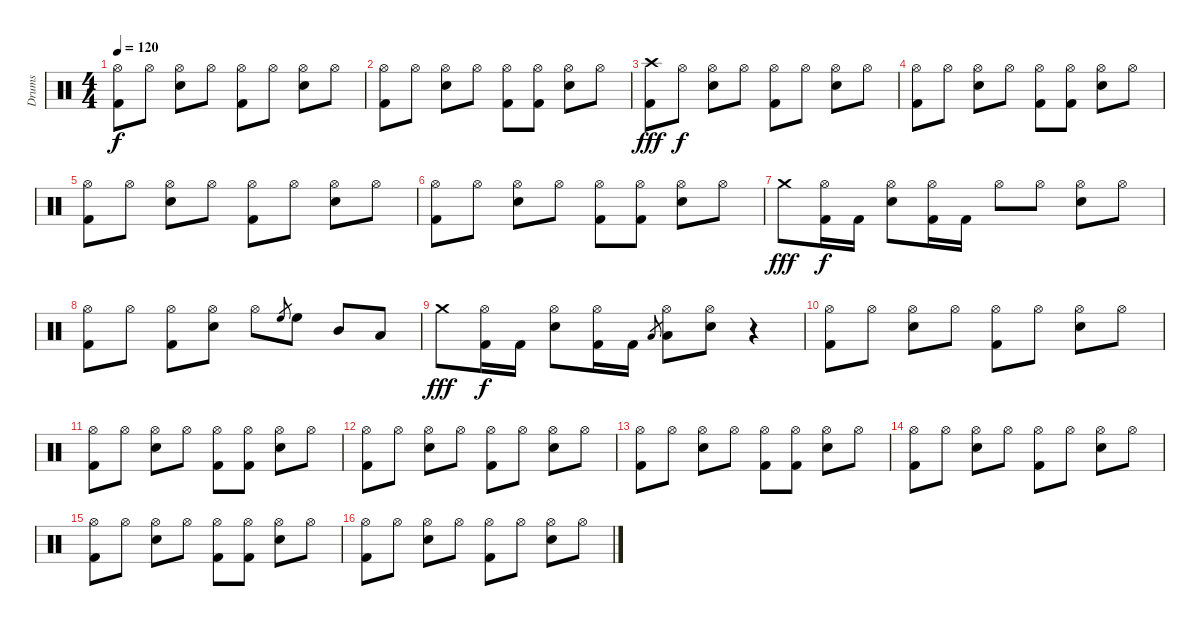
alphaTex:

\track ("Drums" "Drums") {instrument percussion}
\staff {score}
\articulation defaults
\ts (4 4)
\tempo 120
\clef neutral
\ks c
("Hi-Hat (open)" "Kick (hit) 2").8{dy f} "Hi-Hat (open)".8 ("Hi-Hat (open)" "Electric Snare (hit)").8 "Hi-Hat (open)".8 ("Hi-Hat (open)" "Kick (hit) 2").8 "Hi-Hat (open)".8 ("Hi-Hat (open)" "Electric Snare (hit)").8 "Hi-Hat (open)".8 |
("Hi-Hat (open)" "Kick (hit) 2").8 "Hi-Hat (open)".8 ("Hi-Hat (open)" "Electric Snare (hit)").8 "Hi-Hat (open)".8 ("Hi-Hat (open)" "Kick (hit) 2").8 ("Hi-Hat (open)" "Kick (hit) 2").8 ("Hi-Hat (open)" "Electric Snare (hit)").8 "Hi-Hat (open)".8 |
("Crash high (hit)" "Kick (hit) 2").8{dy fff} "Hi-Hat (open)".8{dy f} ("Hi-Hat (open)" "Electric Snare (hit)").8 "Hi-Hat (open)".8 ("Hi-Hat (open)" "Kick (hit) 2").8 "Hi-Hat (open)".8 ("Hi-Hat (open)" "Electric Snare (hit)").8 "Hi-Hat (open)".8 |
("Hi-Hat (open)" "Kick (hit) 2").8 "Hi-Hat (open)".8 ("Hi-Hat (open)" "Electric Snare (hit)").8 "Hi-Hat (open)".8 ("Hi-Hat (open)" "Kick (hit) 2").8 ("Hi-Hat (open)" "Kick (hit) 2").8 ("Hi-Hat (open)" "Electric Snare (hit)").8 "Hi-Hat (open)".8 |
("Hi-Hat (open)" "Kick (hit) 2").8 "Hi-Hat (open)".8 ("Hi-Hat (open)" "Electric Snare (hit)").8 "Hi-Hat (open)".8 ("Hi-Hat (open)" "Kick (hit) 2").8 "Hi-Hat (open)".8 ("Hi-Hat (open)" "Electric Snare (hit)").8 "Hi-Hat (open)".8 |
("Hi-Hat (open)" "Kick (hit) 2").8 "Hi-Hat (open)".8 ("Hi-Hat (open)" "Electric Snare (hit)").8 "Hi-Hat (open)".8 ("Hi-Hat (open)" "Kick (hit) 2").8 ("Hi-Hat (open)" "Kick (hit) 2").8 ("Hi-Hat (open)" "Electric Snare (hit)").8 "Hi-Hat (open)".8 |
"Crash medium (hit)".8{dy fff} ("Hi-Hat (open)" "Kick (hit) 2").16{dy f} "Kick (hit) 2".16 ("Hi-Hat (open)" "Electric Snare (hit)").8 ("Hi-Hat (open)" "Kick (hit) 2").16 "Kick (hit) 2".16 "Hi-Hat (open)".8 "Hi-Hat (open)".8 ("Hi-Hat (open)" "Electric Snare (hit)").8 "Hi-Hat (open)".8 |
("Hi-Hat (open)" "Kick (hit) 2").8 "Hi-Hat (open)".8 ("Hi-Hat (open)" "Kick (hit) 2").8 ("Hi-Hat (open)" "Electric Snare (hit)").8 "Hi-Hat (open)".8 "High Floor Tom (hit)".8{gr} "High Floor Tom (hit)".8 "Mid Tom (hit)".8 "Low Tom (hit)".8 |
"Crash medium (hit)".8{dy fff} ("Hi-Hat (open)" "Kick (hit) 2").16{dy f} "Kick (hit) 2".16 ("Hi-Hat (open)" "Electric Snare (hit)").8 ("Hi-Hat (open)" "Kick (hit) 2").16 "Kick (hit) 2".16 "Low Tom (hit)".8{gr} ("Hi-Hat (open)" "Low Tom (hit)").8 ("Hi-Hat (open)" "Electric Snare (hit)").8 r.4 |
("Hi-Hat (open)" "Kick (hit) 2").8 "Hi-Hat (open)".8 ("Hi-Hat (open)" "Electric Snare (hit)").8 "Hi-Hat (open)".8 ("Hi-Hat (open)" "Kick (hit) 2").8 "Hi-Hat (open)".8 ("Hi-Hat (open)" "Electric Snare (hit)").8 "Hi-Hat (open)".8 |
("Hi-Hat (open)" "Kick (hit) 2").8 "Hi-Hat (open)".8 ("Hi-Hat (open)" "Electric Snare (hit)").8 "Hi-Hat (open)".8 ("Hi-Hat (open)" "Kick (hit) 2").8 ("Hi-Hat (open)" "Kick (hit) 2").8 ("Hi-Hat (open)" "Electric Snare (hit)").8 "Hi-Hat (open)".8 |
("Hi-Hat (open)" "Kick (hit) 2").8 "Hi-Hat (open)".8 ("Hi-Hat (open)" "Electric Snare (hit)").8 "Hi-Hat (open)".8 ("Hi-Hat (open)" "Kick (hit) 2").8 "Hi-Hat (open)".8 ("Hi-Hat (open)" "Electric Snare (hit)").8 "Hi-Hat (open)".8 |
("Hi-Hat (open)" "Kick (hit) 2").8 "Hi-Hat (open)".8 ("Hi-Hat (open)" "Electric Snare (hit)").8 "Hi-Hat (open)".8 ("Hi-Hat (open)" "Kick (hit) 2").8 ("Hi-Hat (open)" "Kick (hit) 2").8 ("Hi-Hat (open)" "Electric Snare (hit)").8 "Hi-Hat (open)".8 |
("Hi-Hat (open)" "Kick (hit) 2").8 "Hi-Hat (open)".8 ("Hi-Hat (open)" "Electric Snare (hit)").8 "Hi-Hat (open)".8 ("Hi-Hat (open)" "Kick (hit) 2").8 "Hi-Hat (open)".8 ("Hi-Hat (open)" "Electric Snare (hit)").8 "Hi-Hat (open)".8 |
("Hi-Hat (open)" "Kick (hit) 2").8 "Hi-Hat (open)".8 ("Hi-Hat (open)" "Electric Snare (hit)").8 "Hi-Hat (open)".8 ("Hi-Hat (open)" "Kick (hit) 2").8 ("Hi-Hat (open)" "Kick (hit) 2").8 ("Hi-Hat (open)" "Electric Snare (hit)").8 "Hi-Hat (open)".8 |
("Hi-Hat (open)" "Kick (hit) 2").8 "Hi-Hat (open)".8 ("Hi-Hat (open)" "Electric Snare (hit)").8 "Hi-Hat (open)".8 ("Hi-Hat (open)" "Kick (hit) 2").8 "Hi-Hat (open)".8 ("Hi-Hat (open)" "Electric Snare (hit)").8 "Hi-Hat (open)".8
